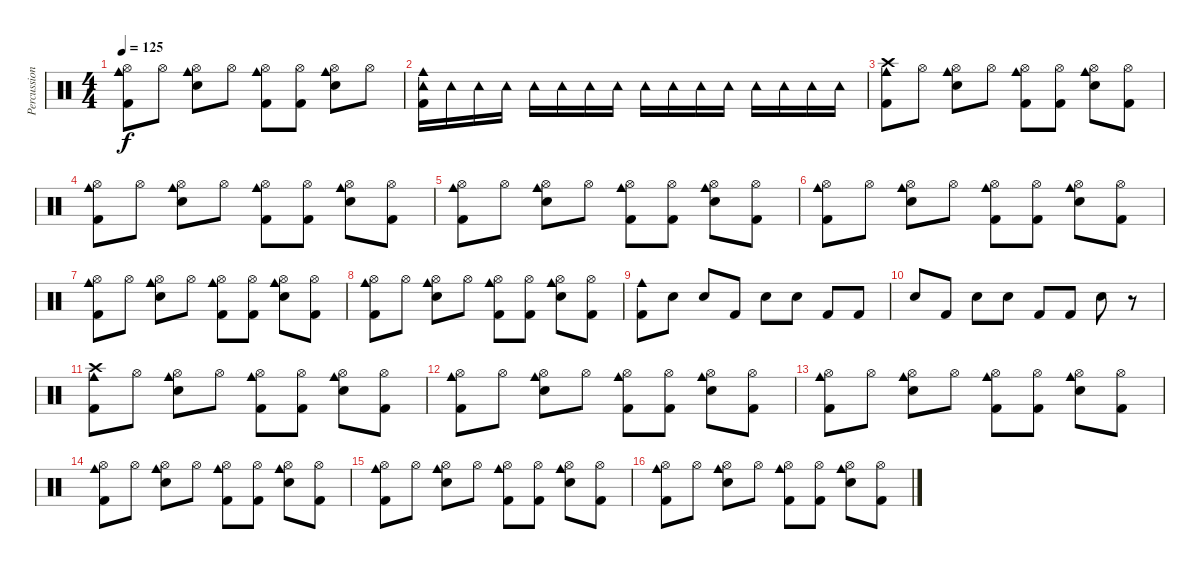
\track ("Percussion" "Percussion") {instrument percussion}
\staff {score}
\articulation defaults
\ts (4 4)
\tempo 125
\clef neutral
\ks c
("Hi-Hat (open)" "Cowbell medium (hit)" "Kick (hit) 2").8{dy f} "Hi-Hat (open)".8 ("Hi-Hat (open)" "Snare (hit) 2" "Cowbell medium (hit)").8 "Hi-Hat (open)".8 ("Hi-Hat (open)" "Cowbell medium (hit)" "Kick (hit) 2").8 ("Hi-Hat (open)" "Kick (hit) 2").8 ("Hi-Hat (open)" "Snare (hit) 2" "Cowbell medium (hit)").8 "Hi-Hat (open)".8 |
("Tambourine (hit)" "Cowbell medium (hit)" "Kick (hit) 2").16 "Tambourine (hit)".16 "Tambourine (hit)".16 "Tambourine (hit)".16 "Tambourine (hit)".16 "Tambourine (hit)".16 "Tambourine (hit)".16 "Tambourine (hit)".16 "Tambourine (hit)".16 "Tambourine (hit)".16 "Tambourine (hit)".16 "Tambourine (hit)".16 "Tambourine (hit)".16 "Tambourine (hit)".16 "Tambourine (hit)".16 "Tambourine (hit)".16 |
("Crash high (hit)" "Cowbell medium (hit)" "Kick (hit) 2").8 "Hi-Hat (open)".8 ("Hi-Hat (open)" "Snare (hit) 2" "Cowbell medium (hit)").8 "Hi-Hat (open)".8 ("Hi-Hat (open)" "Cowbell medium (hit)" "Kick (hit) 2").8 ("Hi-Hat (open)" "Kick (hit) 2").8 ("Hi-Hat (open)" "Snare (hit) 2" "Cowbell medium (hit)").8 ("Hi-Hat (open)" "Kick (hit) 2").8 |
("Hi-Hat (open)" "Cowbell medium (hit)" "Kick (hit) 2").8 "Hi-Hat (open)".8 ("Hi-Hat (open)" "Snare (hit) 2" "Cowbell medium (hit)").8 "Hi-Hat (open)".8 ("Hi-Hat (open)" "Cowbell medium (hit)" "Kick (hit) 2").8 ("Hi-Hat (open)" "Kick (hit) 2").8 ("Hi-Hat (open)" "Snare (hit) 2" "Cowbell medium (hit)").8 ("Hi-Hat (open)" "Kick (hit) 2").8 |
("Hi-Hat (open)" "Cowbell medium (hit)" "Kick (hit) 2").8 "Hi-Hat (open)".8 ("Hi-Hat (open)" "Snare (hit) 2" "Cowbell medium (hit)").8 "Hi-Hat (open)".8 ("Hi-Hat (open)" "Cowbell medium (hit)" "Kick (hit) 2").8 ("Hi-Hat (open)" "Kick (hit) 2").8 ("Hi-Hat (open)" "Snare (hit) 2" "Cowbell medium (hit)").8 ("Hi-Hat (open)" "Kick (hit) 2").8 |
("Hi-Hat (open)" "Cowbell medium (hit)" "Kick (hit) 2").8 "Hi-Hat (open)".8 ("Hi-Hat (open)" "Snare (hit) 2" "Cowbell medium (hit)").8 "Hi-Hat (open)".8 ("Hi-Hat (open)" "Cowbell medium (hit)" "Kick (hit) 2").8 ("Hi-Hat (open)" "Kick (hit) 2").8 ("Hi-Hat (open)" "Snare (hit) 2" "Cowbell medium (hit)").8 ("Hi-Hat (open)" "Kick (hit) 2").8 |
("Hi-Hat (open)" "Cowbell medium (hit)" "Kick (hit) 2").8 "Hi-Hat (open)".8 ("Hi-Hat (open)" "Snare (hit) 2" "Cowbell medium (hit)").8 "Hi-Hat (open)".8 ("Hi-Hat (open)" "Cowbell medium (hit)" "Kick (hit) 2").8 ("Hi-Hat (open)" "Kick (hit) 2").8 ("Hi-Hat (open)" "Snare (hit) 2" "Cowbell medium (hit)").8 ("Hi-Hat (open)" "Kick (hit) 2").8 |
("Hi-Hat (open)" "Cowbell medium (hit)" "Kick (hit) 2").8 "Hi-Hat (open)".8 ("Hi-Hat (open)" "Snare (hit) 2" "Cowbell medium (hit)").8 "Hi-Hat (open)".8 ("Hi-Hat (open)" "Cowbell medium (hit)" "Kick (hit) 2").8 ("Hi-Hat (open)" "Kick (hit) 2").8 ("Hi-Hat (open)" "Snare (hit) 2" "Cowbell medium (hit)").8 ("Hi-Hat (open)" "Kick (hit) 2").8 |
("Cowbell medium (hit)" "Kick (hit) 2").8 "Snare (hit) 2".8 "Snare (hit) 2".8 "Kick (hit) 2".8 "Snare (hit) 2".8 "Snare (hit) 2".8 "Kick (hit) 2".8 "Kick (hit) 2".8 |
"Snare (hit) 2".8 "Kick (hit) 2".8 "Snare (hit) 2".8 "Snare (hit) 2".8 "Kick (hit) 2".8 "Kick (hit) 2".8 "Snare (hit) 2".8 r.8 |
("Crash high (hit)" "Cowbell medium (hit)" "Kick (hit) 2").8 "Hi-Hat (open)".8 ("Hi-Hat (open)" "Snare (hit) 2" "Cowbell medium (hit)").8 "Hi-Hat (open)".8 ("Hi-Hat (open)" "Cowbell medium (hit)" "Kick (hit) 2").8 ("Hi-Hat (open)" "Kick (hit) 2").8 ("Hi-Hat (open)" "Snare (hit) 2" "Cowbell medium (hit)").8 ("Hi-Hat (open)" "Kick (hit) 2").8 |
("Hi-Hat (open)" "Cowbell medium (hit)" "Kick (hit) 2").8 "Hi-Hat (open)".8 ("Hi-Hat (open)" "Snare (hit) 2" "Cowbell medium (hit)").8 "Hi-Hat (open)".8 ("Hi-Hat (open)" "Cowbell medium (hit)" "Kick (hit) 2").8 ("Hi-Hat (open)" "Kick (hit) 2").8 ("Hi-Hat (open)" "Snare (hit) 2" "Cowbell medium (hit)").8 ("Hi-Hat (open)" "Kick (hit) 2").8 |
("Hi-Hat (open)" "Cowbell medium (hit)" "Kick (hit) 2").8 "Hi-Hat (open)".8 ("Hi-Hat (open)" "Snare (hit) 2" "Cowbell medium (hit)").8 "Hi-Hat (open)".8 ("Hi-Hat (open)" "Cowbell medium (hit)" "Kick (hit) 2").8 ("Hi-Hat (open)" "Kick (hit) 2").8 ("Hi-Hat (open)" "Snare (hit) 2" "Cowbell medium (hit)").8 ("Hi-Hat (open)" "Kick (hit) 2").8 |
("Hi-Hat (open)" "Cowbell medium (hit)" "Kick (hit) 2").8 "Hi-Hat (open)".8 ("Hi-Hat (open)" "Snare (hit) 2" "Cowbell medium (hit)").8 "Hi-Hat (open)".8 ("Hi-Hat (open)" "Cowbell medium (hit)" "Kick (hit) 2").8 ("Hi-Hat (open)" "Kick (hit) 2").8 ("Hi-Hat (open)" "Snare (hit) 2" "Cowbell medium (hit)").8 ("Hi-Hat (open)" "Kick (hit) 2").8 |
("Hi-Hat (open)" "Cowbell medium (hit)" "Kick (hit) 2").8 "Hi-Hat (open)".8 ("Hi-Hat (open)" "Snare (hit) 2" "Cowbell medium (hit)").8 "Hi-Hat (open)".8 ("Hi-Hat (open)" "Cowbell medium (hit)" "Kick (hit) 2").8 ("Hi-Hat (open)" "Kick (hit) 2").8 ("Hi-Hat (open)" "Snare (hit) 2" "Cowbell medium (hit)").8 ("Hi-Hat (open)" "Kick (hit) 2").8 |
("Hi-Hat (open)" "Cowbell medium (hit)" "Kick (hit) 2").8 "Hi-Hat (open)".8 ("Hi-Hat (open)" "Snare (hit) 2" "Cowbell medium (hit)").8 "Hi-Hat (open)".8 ("Hi-Hat (open)" "Cowbell medium (hit)" "Kick (hit) 2").8 ("Hi-Hat (open)" "Kick (hit) 2").8 ("Hi-Hat (open)" "Snare (hit) 2" "Cowbell medium (hit)").8 ("Hi-Hat (open)" "Kick (hit) 2").8
